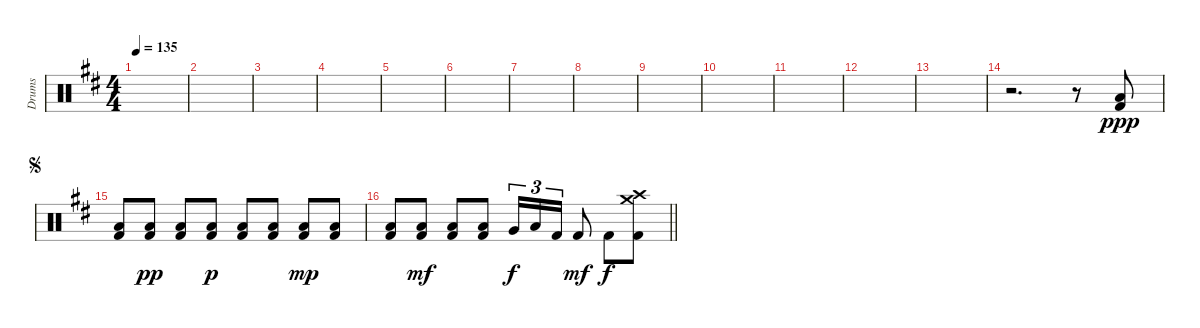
\track ("Drums" "Drums") {instrument percussion}
\staff {score}
\articulation defaults
\ts (4 4)
\tempo 135
\clef neutral
\ks d
|
|
|
|
|
|
|
|
|
|
|
|
|
r.2{d} r.8 ("Low Floor Tom (hit)" "Kick (hit) 2").8{dy ppp} |
\jump segno
("Low Floor Tom (hit)" "Kick (hit) 2").8 ("Low Floor Tom (hit)" "Kick (hit) 2").8{dy pp} ("Low Floor Tom (hit)" "Kick (hit) 2").8 ("Low Floor Tom (hit)" "Kick (hit) 2").8{dy p} ("Low Floor Tom (hit)" "Kick (hit) 2").8 ("Low Floor Tom (hit)" "Kick (hit) 2").8 ("Low Floor Tom (hit)" "Kick (hit) 2").8{dy mp} ("Low Floor Tom (hit)" "Kick (hit) 2").8 |
\barLineRight lightlight
("Low Floor Tom (hit)" "Kick (hit) 2").8 ("Low Floor Tom (hit)" "Kick (hit) 2").8{dy mf} ("Low Floor Tom (hit)" "Kick (hit) 2").8 ("Low Floor Tom (hit)" "Kick (hit) 2").8 "Very Low Tom (hit)".16{tu (3 2) dy f} "Low Floor Tom (hit)".16{tu (3 2)} "Kick (hit) 2".16{tu (3 2)} "Kick (hit) 2".8{dy mf} "Kick (hit) 2".8{dy f} ("Crash high (hit)" "Crash medium (hit)" "Kick (hit) 2").8
